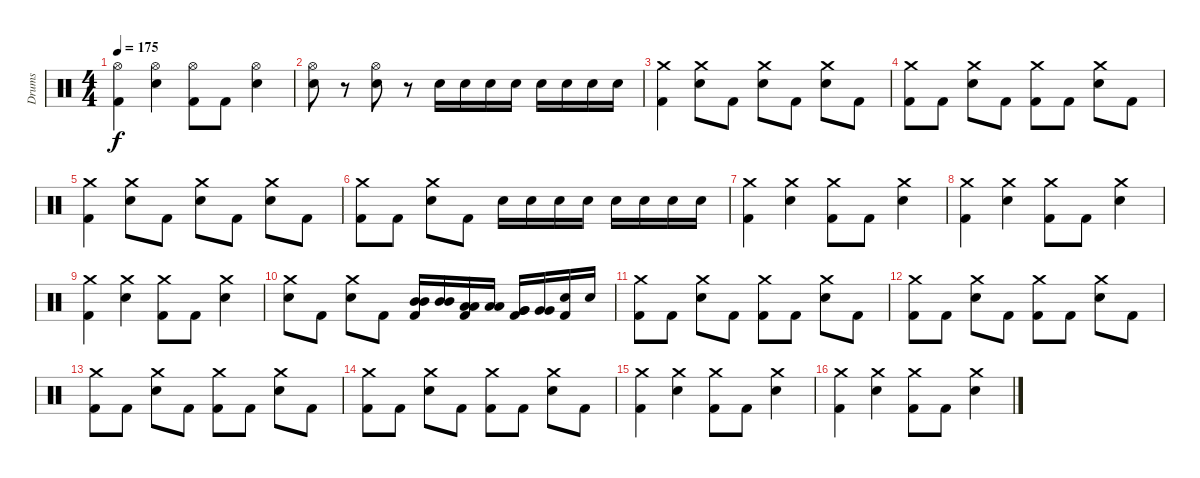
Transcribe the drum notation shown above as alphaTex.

\track ("Drums" "Drums") {instrument percussion}
\staff {score}
\articulation defaults
\ts (4 4)
\tempo 175
\clef neutral
\ks c
("Kick (hit) 2" "Hi-Hat (open)").4{dy f} ("Electric Snare (hit)" "Hi-Hat (open)").4 ("Kick (hit) 2" "Hi-Hat (open)").8 "Kick (hit) 2".8 ("Electric Snare (hit)" "Hi-Hat (open)").4 |
("Electric Snare (hit)" "Hi-Hat (open)").8 r.8 ("Electric Snare (hit)" "Hi-Hat (open)").8 r.8 "Electric Snare (hit)".16 "Electric Snare (hit)".16 "Electric Snare (hit)".16 "Electric Snare (hit)".16 "Electric Snare (hit)".16 "Electric Snare (hit)".16 "Electric Snare (hit)".16 "Electric Snare (hit)".16 |
("Kick (hit) 2" "Crash medium (hit)").4 ("Electric Snare (hit)" "Crash medium (hit)").8 "Kick (hit) 2".8 ("Electric Snare (hit)" "Crash medium (hit)").8 "Kick (hit) 2".8 ("Electric Snare (hit)" "Crash medium (hit)").8 "Kick (hit) 2".8 |
("Kick (hit) 2" "Crash medium (hit)").8 "Kick (hit) 2".8 ("Electric Snare (hit)" "Crash medium (hit)").8 "Kick (hit) 2".8 ("Kick (hit) 2" "Crash medium (hit)").8 "Kick (hit) 2".8 ("Electric Snare (hit)" "Crash medium (hit)").8 "Kick (hit) 2".8 |
("Kick (hit) 2" "Crash medium (hit)").4 ("Electric Snare (hit)" "Crash medium (hit)").8 "Kick (hit) 2".8 ("Electric Snare (hit)" "Crash medium (hit)").8 "Kick (hit) 2".8 ("Electric Snare (hit)" "Crash medium (hit)").8 "Kick (hit) 2".8 |
("Kick (hit) 2" "Crash medium (hit)").8 "Kick (hit) 2".8 ("Electric Snare (hit)" "Crash medium (hit)").8 "Kick (hit) 2".8 "Electric Snare (hit)".16 "Electric Snare (hit)".16 "Electric Snare (hit)".16 "Electric Snare (hit)".16 "Electric Snare (hit)".16 "Electric Snare (hit)".16 "Electric Snare (hit)".16 "Electric Snare (hit)".16 |
("Kick (hit) 2" "Crash medium (hit)").4 ("Electric Snare (hit)" "Crash medium (hit)").4 ("Kick (hit) 2" "Crash medium (hit)").8 "Kick (hit) 2".8 ("Electric Snare (hit)" "Crash medium (hit)").4 |
("Kick (hit) 2" "Crash medium (hit)").4 ("Electric Snare (hit)" "Crash medium (hit)").4 ("Kick (hit) 2" "Crash medium (hit)").8 "Kick (hit) 2".8 ("Electric Snare (hit)" "Crash medium (hit)").4 |
("Kick (hit) 2" "Crash medium (hit)").4 ("Electric Snare (hit)" "Crash medium (hit)").4 ("Kick (hit) 2" "Crash medium (hit)").8 "Kick (hit) 2".8 ("Electric Snare (hit)" "Crash medium (hit)").4 |
("Electric Snare (hit)" "Crash medium (hit)").8 "Kick (hit) 2".8 ("Electric Snare (hit)" "Crash medium (hit)").8 "Kick (hit) 2".8 ("Kick (hit) 2" "Mid Tom (hit)" "Mid Tom (hit)").16 ("Mid Tom (hit)" "Mid Tom (hit)").16 ("Kick (hit) 2" "Low Tom (hit)" "Low Tom (hit)").16 ("Low Tom (hit)" "Low Tom (hit)").16 ("Kick (hit) 2" "Very Low Tom (hit)" "Very Low Tom (hit)").16 ("Very Low Tom (hit)" "Very Low Tom (hit)").16 ("Kick (hit) 2" "Electric Snare (hit)").16 "Electric Snare (hit)".16 |
("Kick (hit) 2" "Crash medium (hit)").8 "Kick (hit) 2".8 ("Electric Snare (hit)" "Crash medium (hit)").8 "Kick (hit) 2".8 ("Kick (hit) 2" "Crash medium (hit)").8 "Kick (hit) 2".8 ("Electric Snare (hit)" "Crash medium (hit)").8 "Kick (hit) 2".8 |
("Kick (hit) 2" "Crash medium (hit)").8 "Kick (hit) 2".8 ("Electric Snare (hit)" "Crash medium (hit)").8 "Kick (hit) 2".8 ("Kick (hit) 2" "Crash medium (hit)").8 "Kick (hit) 2".8 ("Electric Snare (hit)" "Crash medium (hit)").8 "Kick (hit) 2".8 |
("Kick (hit) 2" "Crash medium (hit)").8 "Kick (hit) 2".8 ("Electric Snare (hit)" "Crash medium (hit)").8 "Kick (hit) 2".8 ("Kick (hit) 2" "Crash medium (hit)").8 "Kick (hit) 2".8 ("Electric Snare (hit)" "Crash medium (hit)").8 "Kick (hit) 2".8 |
("Kick (hit) 2" "Crash medium (hit)").8 "Kick (hit) 2".8 ("Electric Snare (hit)" "Crash medium (hit)").8 "Kick (hit) 2".8 ("Kick (hit) 2" "Crash medium (hit)").8 "Kick (hit) 2".8 ("Electric Snare (hit)" "Crash medium (hit)").8 "Kick (hit) 2".8 |
("Kick (hit) 2" "Crash medium (hit)").4 ("Electric Snare (hit)" "Crash medium (hit)").4 ("Kick (hit) 2" "Crash medium (hit)").8 "Kick (hit) 2".8 ("Electric Snare (hit)" "Crash medium (hit)").4 |
("Kick (hit) 2" "Crash medium (hit)").4 ("Electric Snare (hit)" "Crash medium (hit)").4 ("Kick (hit) 2" "Crash medium (hit)").8 "Kick (hit) 2".8 ("Electric Snare (hit)" "Crash medium (hit)").4
